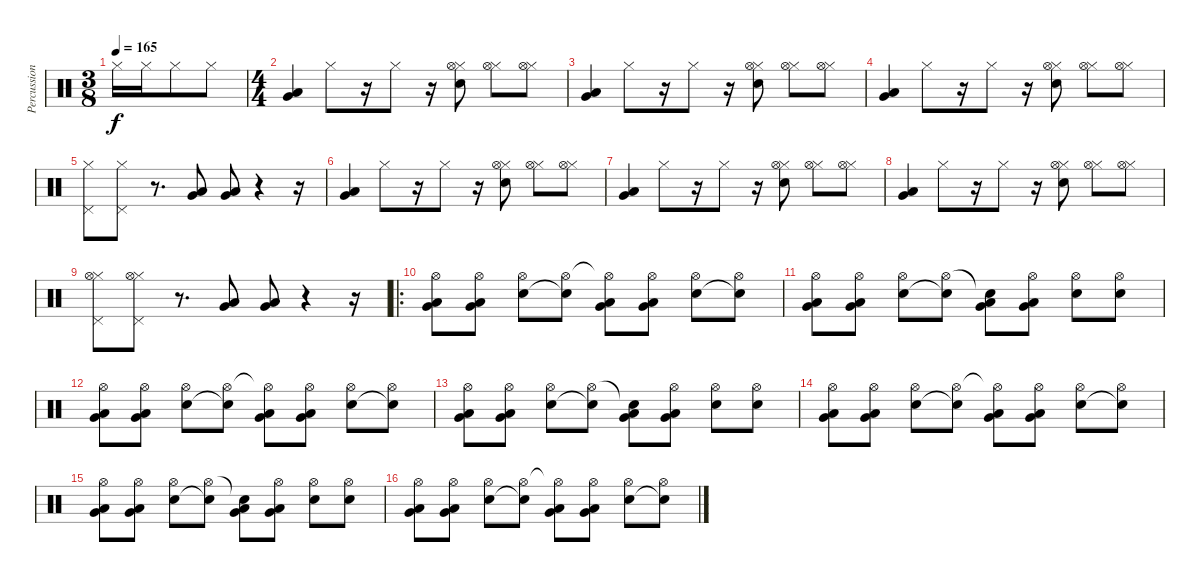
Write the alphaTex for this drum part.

\track ("Percussion" "Percussion") {instrument percussion}
\staff {score}
\articulation defaults
\ts (3 8)
\tempo 165
\clef neutral
\ks c "Hi-Hat (closed)".16{dy f} "Hi-Hat (closed)".16 "Hi-Hat (closed)".8 "Hi-Hat (closed)".8
|
\ts (4 4)
("Very Low Tom (hit)" "Low Tom (hit)").4 "Hi-Hat (closed)".8 r.16 "Hi-Hat (closed)".8 r.16 ("Hi-Hat (closed)" "Hi-Hat (open)" "Electric Snare (hit)").8 ("Hi-Hat (closed)" "Hi-Hat (open)").8 ("Hi-Hat (closed)" "Hi-Hat (open)").8 |
("Very Low Tom (hit)" "Low Tom (hit)").4 "Hi-Hat (closed)".8 r.16 "Hi-Hat (closed)".8 r.16 ("Hi-Hat (closed)" "Hi-Hat (open)" "Electric Snare (hit)").8 ("Hi-Hat (closed)" "Hi-Hat (open)").8 ("Hi-Hat (closed)" "Hi-Hat (open)").8 |
("Very Low Tom (hit)" "Low Tom (hit)").4 "Hi-Hat (closed)".8 r.16 "Hi-Hat (closed)".8 r.16 ("Hi-Hat (closed)" "Hi-Hat (open)" "Electric Snare (hit)").8 ("Hi-Hat (closed)" "Hi-Hat (open)").8 ("Hi-Hat (closed)" "Hi-Hat (open)").8 |
("Hi-Hat (closed)" "Pedal Hi-Hat (hit)").8 ("Hi-Hat (closed)" "Pedal Hi-Hat (hit)").8 r.8{d} ("Very Low Tom (hit)" "Low Tom (hit)").8 ("Very Low Tom (hit)" "Low Tom (hit)").8 r.4 r.16 |
("Very Low Tom (hit)" "Low Tom (hit)").4 "Hi-Hat (closed)".8 r.16 "Hi-Hat (closed)".8 r.16 ("Hi-Hat (closed)" "Hi-Hat (open)" "Electric Snare (hit)").8 ("Hi-Hat (closed)" "Hi-Hat (open)").8 ("Hi-Hat (closed)" "Hi-Hat (open)").8 |
("Very Low Tom (hit)" "Low Tom (hit)").4 "Hi-Hat (closed)".8 r.16 "Hi-Hat (closed)".8 r.16 ("Hi-Hat (closed)" "Hi-Hat (open)" "Electric Snare (hit)").8 ("Hi-Hat (closed)" "Hi-Hat (open)").8 ("Hi-Hat (closed)" "Hi-Hat (open)").8 |
("Very Low Tom (hit)" "Low Tom (hit)").4 "Hi-Hat (closed)".8 r.16 "Hi-Hat (closed)".8 r.16 ("Hi-Hat (closed)" "Hi-Hat (open)" "Electric Snare (hit)").8 ("Hi-Hat (closed)" "Hi-Hat (open)").8 ("Hi-Hat (closed)" "Hi-Hat (open)").8 |
("Hi-Hat (closed)" "Pedal Hi-Hat (hit)" "Hi-Hat (open)").8 ("Hi-Hat (closed)" "Pedal Hi-Hat (hit)" "Hi-Hat (open)").8 r.8{d} ("Very Low Tom (hit)" "Low Tom (hit)").8 ("Very Low Tom (hit)" "Low Tom (hit)").8 r.4 r.16 |
\ro
("Hi-Hat (open)" "Very Low Tom (hit)" "Low Tom (hit)").8 ("Hi-Hat (open)" "Very Low Tom (hit)" "Low Tom (hit)").8 ("Hi-Hat (open)" "Electric Snare (hit)").8 ("Hi-Hat (open)" "Snare (hit)"{t}).8 ("Hi-Hat (open)"{t} "Very Low Tom (hit)" "Low Tom (hit)").8 ("Hi-Hat (open)" "Very Low Tom (hit)" "Low Tom (hit)").8 ("Hi-Hat (open)" "Electric Snare (hit)").8 ("Hi-Hat (open)" "Snare (hit)"{t}).8 |
("Hi-Hat (open)" "Very Low Tom (hit)" "Low Tom (hit)").8 ("Hi-Hat (open)" "Very Low Tom (hit)" "Low Tom (hit)").8 ("Hi-Hat (open)" "Electric Snare (hit)").8 ("Hi-Hat (open)" "Snare (hit)"{t}).8 ("Snare (hit)"{t} "Very Low Tom (hit)" "Low Tom (hit)").8 ("Hi-Hat (open)" "Very Low Tom (hit)" "Low Tom (hit)").8 ("Hi-Hat (open)" "Electric Snare (hit)").8 ("Hi-Hat (open)" "Snare (hit) 2").8 |
("Hi-Hat (open)" "Very Low Tom (hit)" "Low Tom (hit)").8 ("Hi-Hat (open)" "Very Low Tom (hit)" "Low Tom (hit)").8 ("Hi-Hat (open)" "Electric Snare (hit)").8 ("Hi-Hat (open)" "Snare (hit)"{t}).8 ("Hi-Hat (open)"{t} "Very Low Tom (hit)" "Low Tom (hit)").8 ("Hi-Hat (open)" "Very Low Tom (hit)" "Low Tom (hit)").8 ("Hi-Hat (open)" "Electric Snare (hit)").8 ("Hi-Hat (open)" "Snare (hit)"{t}).8 |
("Hi-Hat (open)" "Very Low Tom (hit)" "Low Tom (hit)").8 ("Hi-Hat (open)" "Very Low Tom (hit)" "Low Tom (hit)").8 ("Hi-Hat (open)" "Electric Snare (hit)").8 ("Hi-Hat (open)" "Snare (hit)"{t}).8 ("Snare (hit)"{t} "Very Low Tom (hit)" "Low Tom (hit)").8 ("Hi-Hat (open)" "Very Low Tom (hit)" "Low Tom (hit)").8 ("Hi-Hat (open)" "Electric Snare (hit)").8 ("Hi-Hat (open)" "Snare (hit) 2").8 |
("Hi-Hat (open)" "Very Low Tom (hit)" "Low Tom (hit)").8 ("Hi-Hat (open)" "Very Low Tom (hit)" "Low Tom (hit)").8 ("Hi-Hat (open)" "Electric Snare (hit)").8 ("Hi-Hat (open)" "Snare (hit)"{t}).8 ("Hi-Hat (open)"{t} "Very Low Tom (hit)" "Low Tom (hit)").8 ("Hi-Hat (open)" "Very Low Tom (hit)" "Low Tom (hit)").8 ("Hi-Hat (open)" "Electric Snare (hit)").8 ("Hi-Hat (open)" "Snare (hit)"{t}).8 |
("Hi-Hat (open)" "Very Low Tom (hit)" "Low Tom (hit)").8 ("Hi-Hat (open)" "Very Low Tom (hit)" "Low Tom (hit)").8 ("Hi-Hat (open)" "Electric Snare (hit)").8 ("Hi-Hat (open)" "Snare (hit)"{t}).8 ("Snare (hit)"{t} "Very Low Tom (hit)" "Low Tom (hit)").8 ("Hi-Hat (open)" "Very Low Tom (hit)" "Low Tom (hit)").8 ("Hi-Hat (open)" "Electric Snare (hit)").8 ("Hi-Hat (open)" "Snare (hit) 2").8 |
("Hi-Hat (open)" "Very Low Tom (hit)" "Low Tom (hit)").8 ("Hi-Hat (open)" "Very Low Tom (hit)" "Low Tom (hit)").8 ("Hi-Hat (open)" "Electric Snare (hit)").8 ("Hi-Hat (open)" "Snare (hit)"{t}).8 ("Hi-Hat (open)"{t} "Very Low Tom (hit)" "Low Tom (hit)").8 ("Hi-Hat (open)" "Very Low Tom (hit)" "Low Tom (hit)").8 ("Hi-Hat (open)" "Electric Snare (hit)").8 ("Hi-Hat (open)" "Snare (hit)"{t}).8
